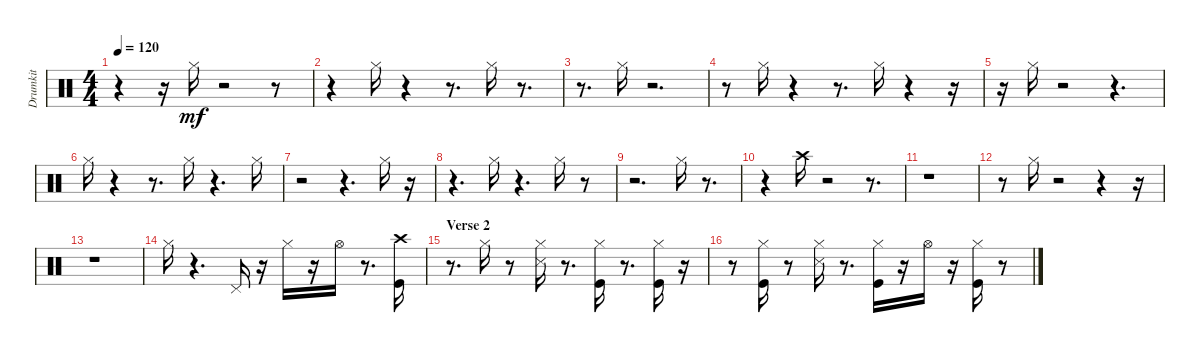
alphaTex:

\track ("Drumkit" "Drumkit") {instrument percussion}
\staff {score}
\articulation defaults
\ts (4 4)
\tempo 120
\clef neutral
\ks aminor
r.4{dy mf} r.16 "Hi-Hat (closed)".16 r.2 r.8 |
r.4 "Hi-Hat (closed)".16 r.4 r.8{d} "Hi-Hat (closed)".16 r.8{d} |
r.8{d} "Hi-Hat (closed)".16 r.2{d} |
r.8 "Hi-Hat (closed)".16 r.4 r.8{d} "Hi-Hat (closed)".16 r.4 r.16 |
r.16 "Hi-Hat (closed)".16 r.2 r.4{d} |
"Hi-Hat (closed)".16 r.4 r.8{d} "Hi-Hat (closed)".16 r.4{d} "Hi-Hat (closed)".16 |
r.2 r.4{d} "Hi-Hat (closed)".16 r.16 |
r.4{d} "Hi-Hat (closed)".16 r.4{d} "Hi-Hat (closed)".16 r.8 |
r.2{d} "Hi-Hat (closed)".16 r.8{d} |
r.4 "Crash high (hit)".16 r.2 r.8{d} |
r.1 |
r.8 "Hi-Hat (closed)".16 r.2 r.4 r.16 |
r.1 |
"Hi-Hat (closed)".16 r.4{d} "Pedal Hi-Hat (hit)".16 r.16 "Hi-Hat (closed)".16 r.16 "Hi-Hat (open)".16 r.8{d} ("Kick (hit)" "Crash high (hit)").16 |
\section ("" "Verse 2")
r.8{d} "Hi-Hat (closed)".16 r.8 ("Snare (side stick) 3" "Hi-Hat (closed)").16 r.8{d} ("Kick (hit)" "Hi-Hat (closed)").16 r.8{d} ("Kick (hit)" "Hi-Hat (closed)").16 r.16 |
r.8 ("Kick (hit)" "Hi-Hat (closed)").16 r.8 ("Snare (side stick) 3" "Hi-Hat (closed)").16 r.8{d} ("Kick (hit)" "Hi-Hat (closed)").16 r.16 "Hi-Hat (open)".16 r.16 ("Kick (hit)" "Hi-Hat (closed)").16 r.8
